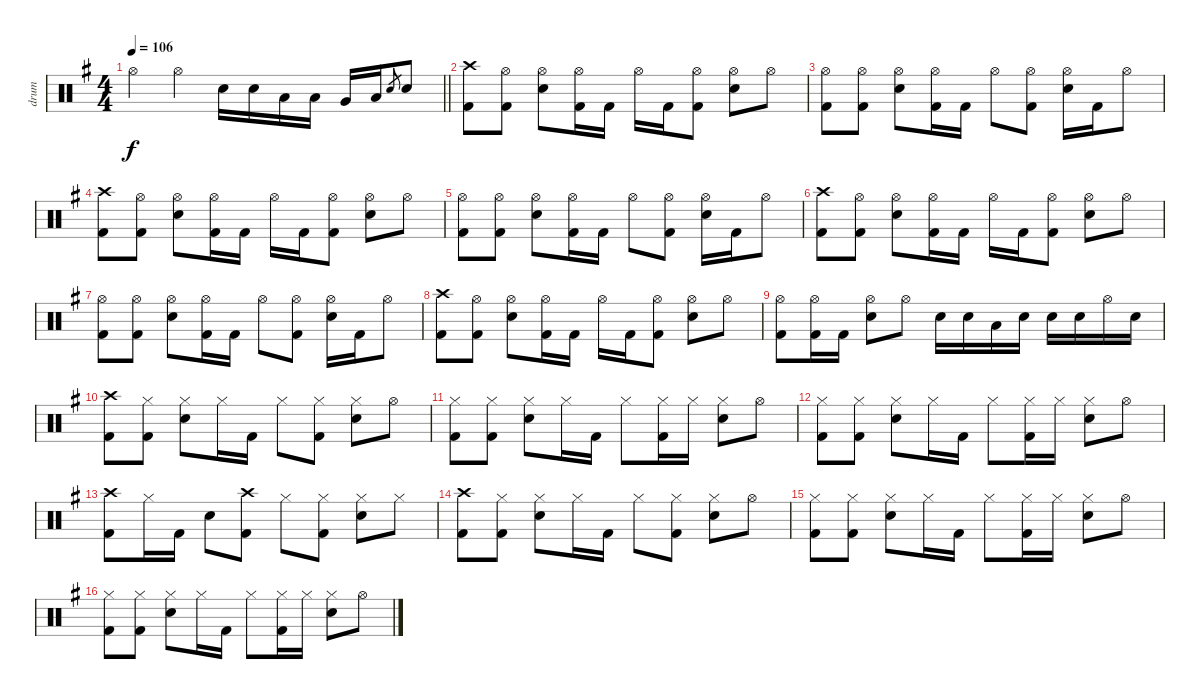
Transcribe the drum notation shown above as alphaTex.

\track ("drum" "drum") {instrument percussion}
\staff {score}
\articulation defaults
\ts (4 4)
\tempo 106
\clef neutral
\barLineRight lightlight
\ks eminor "Hi-Hat (open)".4{dy f} "Hi-Hat (open)".4 "Electric Snare (hit)".16 "Electric Snare (hit)".16 "Low Tom (hit)".16 "Low Tom (hit)".16 "Very Low Tom (hit)".16 "Low Floor Tom (hit)".16 "Electric Snare (hit)".8{gr} "Electric Snare (hit)".8
|
("Crash high (hit)" "Kick (hit) 2").8 ("Hi-Hat (open)" "Kick (hit) 2").8 ("Hi-Hat (open)" "Electric Snare (hit)").8 ("Hi-Hat (open)" "Kick (hit) 2").16 "Kick (hit) 2".16 "Hi-Hat (open)".16 "Kick (hit) 2".16 ("Hi-Hat (open)" "Kick (hit) 2").8 ("Hi-Hat (open)" "Electric Snare (hit)").8 "Hi-Hat (open)".8 |
("Hi-Hat (open)" "Kick (hit) 2").8 ("Hi-Hat (open)" "Kick (hit) 2").8 ("Hi-Hat (open)" "Electric Snare (hit)").8 ("Hi-Hat (open)" "Kick (hit) 2").16 "Kick (hit) 2".16 "Hi-Hat (open)".8 ("Hi-Hat (open)" "Kick (hit) 2").8 ("Hi-Hat (open)" "Electric Snare (hit)").16 "Kick (hit) 2".16 "Hi-Hat (open)".8 |
("Crash high (hit)" "Kick (hit) 2").8 ("Hi-Hat (open)" "Kick (hit) 2").8 ("Hi-Hat (open)" "Electric Snare (hit)").8 ("Hi-Hat (open)" "Kick (hit) 2").16 "Kick (hit) 2".16 "Hi-Hat (open)".16 "Kick (hit) 2".16 ("Hi-Hat (open)" "Kick (hit) 2").8 ("Hi-Hat (open)" "Electric Snare (hit)").8 "Hi-Hat (open)".8 |
("Hi-Hat (open)" "Kick (hit) 2").8 ("Hi-Hat (open)" "Kick (hit) 2").8 ("Hi-Hat (open)" "Electric Snare (hit)").8 ("Hi-Hat (open)" "Kick (hit) 2").16 "Kick (hit) 2".16 "Hi-Hat (open)".8 ("Hi-Hat (open)" "Kick (hit) 2").8 ("Hi-Hat (open)" "Electric Snare (hit)").16 "Kick (hit) 2".16 "Hi-Hat (open)".8 |
("Crash high (hit)" "Kick (hit) 2").8 ("Hi-Hat (open)" "Kick (hit) 2").8 ("Hi-Hat (open)" "Electric Snare (hit)").8 ("Hi-Hat (open)" "Kick (hit) 2").16 "Kick (hit) 2".16 "Hi-Hat (open)".16 "Kick (hit) 2".16 ("Hi-Hat (open)" "Kick (hit) 2").8 ("Hi-Hat (open)" "Electric Snare (hit)").8 "Hi-Hat (open)".8 |
("Hi-Hat (open)" "Kick (hit) 2").8 ("Hi-Hat (open)" "Kick (hit) 2").8 ("Hi-Hat (open)" "Electric Snare (hit)").8 ("Hi-Hat (open)" "Kick (hit) 2").16 "Kick (hit) 2".16 "Hi-Hat (open)".8 ("Hi-Hat (open)" "Kick (hit) 2").8 ("Hi-Hat (open)" "Electric Snare (hit)").16 "Kick (hit) 2".16 "Hi-Hat (open)".8 |
("Crash high (hit)" "Kick (hit) 2").8 ("Hi-Hat (open)" "Kick (hit) 2").8 ("Hi-Hat (open)" "Electric Snare (hit)").8 ("Hi-Hat (open)" "Kick (hit) 2").16 "Kick (hit) 2".16 "Hi-Hat (open)".16 "Kick (hit) 2".16 ("Hi-Hat (open)" "Kick (hit) 2").8 ("Hi-Hat (open)" "Electric Snare (hit)").8 "Hi-Hat (open)".8 |
("Hi-Hat (open)" "Kick (hit) 2").8 ("Hi-Hat (open)" "Kick (hit) 2").16 "Kick (hit) 2".16 ("Hi-Hat (open)" "Electric Snare (hit)").8 "Hi-Hat (open)".8 "Electric Snare (hit)".16 "Electric Snare (hit)".16 "Low Tom (hit)".16 "Electric Snare (hit)".16 "Electric Snare (hit)".16 "Electric Snare (hit)".16 "Hi-Hat (open)".16 "Electric Snare (hit)".16 |
("Crash high (hit)" "Kick (hit) 2").8 ("Hi-Hat (closed)" "Kick (hit) 2").8 ("Hi-Hat (closed)" "Electric Snare (hit)").8 "Hi-Hat (closed)".16 "Kick (hit) 2".16 "Hi-Hat (closed)".8 ("Hi-Hat (closed)" "Kick (hit) 2").8 ("Hi-Hat (closed)" "Electric Snare (hit)").8 "Hi-Hat (open)".8 |
("Hi-Hat (closed)" "Kick (hit) 2").8 ("Hi-Hat (closed)" "Kick (hit) 2").8 ("Hi-Hat (closed)" "Electric Snare (hit)").8 "Hi-Hat (closed)".16 "Kick (hit) 2".16 "Hi-Hat (closed)".8 ("Hi-Hat (closed)" "Kick (hit) 2").16 "Hi-Hat (closed)".16 ("Hi-Hat (closed)" "Electric Snare (hit)").8 "Hi-Hat (open)".8 |
("Hi-Hat (closed)" "Kick (hit) 2").8 ("Hi-Hat (closed)" "Kick (hit) 2").8 ("Hi-Hat (closed)" "Electric Snare (hit)").8 "Hi-Hat (closed)".16 "Kick (hit) 2".16 "Hi-Hat (closed)".8 ("Hi-Hat (closed)" "Kick (hit) 2").16 "Hi-Hat (closed)".16 ("Hi-Hat (closed)" "Electric Snare (hit)").8 "Hi-Hat (open)".8 |
("Crash high (hit)" "Kick (hit) 2").8 "Hi-Hat (closed)".16 "Kick (hit) 2".16 "Electric Snare (hit)".8 ("Crash high (hit)" "Kick (hit) 2").8 "Hi-Hat (closed)".8 ("Hi-Hat (closed)" "Kick (hit) 2").8 ("Hi-Hat (closed)" "Electric Snare (hit)").8 "Hi-Hat (closed)".8 |
("Crash high (hit)" "Kick (hit) 2").8 ("Hi-Hat (closed)" "Kick (hit) 2").8 ("Hi-Hat (closed)" "Electric Snare (hit)").8 "Hi-Hat (closed)".16 "Kick (hit) 2".16 "Hi-Hat (closed)".8 ("Hi-Hat (closed)" "Kick (hit) 2").8 ("Hi-Hat (closed)" "Electric Snare (hit)").8 "Hi-Hat (open)".8 |
("Hi-Hat (closed)" "Kick (hit) 2").8 ("Hi-Hat (closed)" "Kick (hit) 2").8 ("Hi-Hat (closed)" "Electric Snare (hit)").8 "Hi-Hat (closed)".16 "Kick (hit) 2".16 "Hi-Hat (closed)".8 ("Hi-Hat (closed)" "Kick (hit) 2").16 "Hi-Hat (closed)".16 ("Hi-Hat (closed)" "Electric Snare (hit)").8 "Hi-Hat (open)".8 |
("Hi-Hat (closed)" "Kick (hit) 2").8 ("Hi-Hat (closed)" "Kick (hit) 2").8 ("Hi-Hat (closed)" "Electric Snare (hit)").8 "Hi-Hat (closed)".16 "Kick (hit) 2".16 "Hi-Hat (closed)".8 ("Hi-Hat (closed)" "Kick (hit) 2").16 "Hi-Hat (closed)".16 ("Hi-Hat (closed)" "Electric Snare (hit)").8 "Hi-Hat (open)".8
